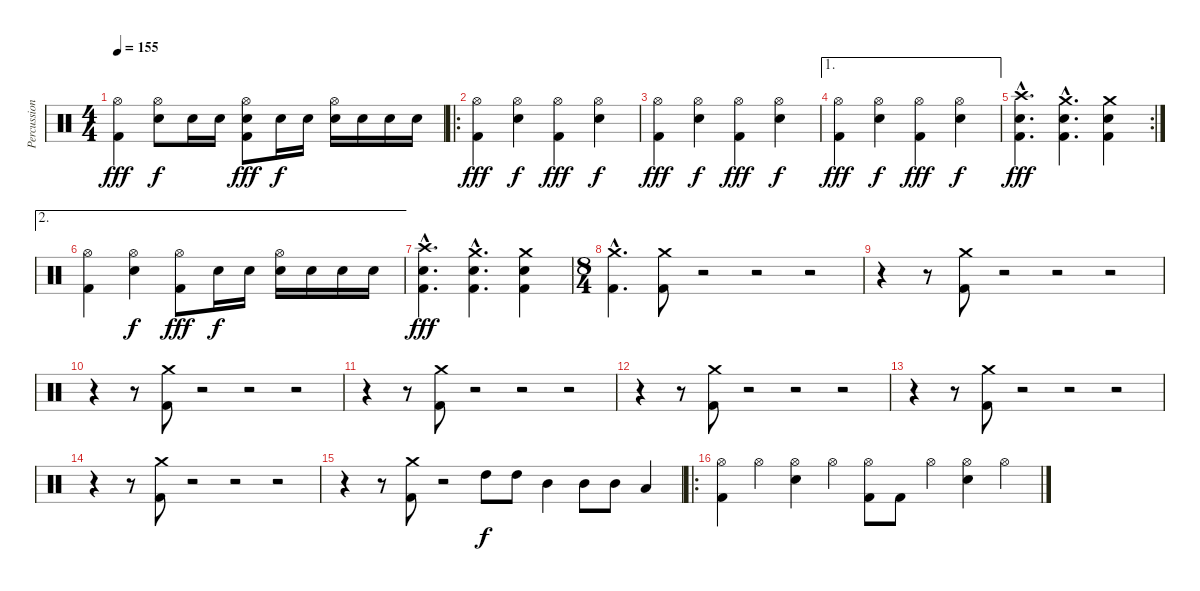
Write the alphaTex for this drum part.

\track ("Percussion" "Percussion") {instrument percussion}
\staff {score}
\articulation defaults
\ts (4 4)
\tempo 155
\clef neutral
\ks c
("Hi-Hat (open)" "Kick (hit) 2").4{dy fff} ("Hi-Hat (open)" "Snare (hit) 2").8{dy f} "Snare (hit) 2".16 "Snare (hit) 2".16 ("Hi-Hat (open)" "Snare (hit) 2" "Kick (hit) 2").8{dy fff} "Snare (hit) 2".16{dy f} "Snare (hit) 2".16 ("Hi-Hat (open)" "Snare (hit) 2").16 "Snare (hit) 2".16 "Snare (hit) 2".16 "Snare (hit) 2".16 |
\ro
("Hi-Hat (open)" "Kick (hit) 2").4{dy fff} ("Hi-Hat (open)" "Snare (hit) 2").4{dy f} ("Hi-Hat (open)" "Kick (hit) 2").4{dy fff} ("Hi-Hat (open)" "Snare (hit) 2").4{dy f} |
("Hi-Hat (open)" "Kick (hit) 2").4{dy fff} ("Hi-Hat (open)" "Snare (hit) 2").4{dy f} ("Hi-Hat (open)" "Kick (hit) 2").4{dy fff} ("Hi-Hat (open)" "Snare (hit) 2").4{dy f} |
\ae 1
("Hi-Hat (open)" "Kick (hit) 2").4{dy fff} ("Hi-Hat (open)" "Snare (hit) 2").4{dy f} ("Hi-Hat (open)" "Kick (hit) 2").4{dy fff} ("Hi-Hat (open)" "Snare (hit) 2").4{dy f} |
\rc 2
("Crash high (hit)"{hac} "Snare (hit) 2"{hac} "Kick (hit) 2"{hac}).4{d dy fff} ("Crash medium (hit)"{hac} "Snare (hit) 2"{hac} "Kick (hit) 2"{hac}).4{d} ("Crash medium (hit)" "Snare (hit) 2" "Kick (hit) 2").4 |
\ae 2
("Hi-Hat (open)" "Kick (hit) 2").4 ("Hi-Hat (open)" "Snare (hit) 2").4{dy f} ("Hi-Hat (open)" "Kick (hit) 2").8{dy fff} "Snare (hit) 2".16{dy f} "Snare (hit) 2".16 ("Hi-Hat (open)" "Snare (hit) 2").16 "Snare (hit) 2".16 "Snare (hit) 2".16 "Snare (hit) 2".16 |
("Crash high (hit)"{hac} "Snare (hit) 2"{hac} "Kick (hit) 2"{hac}).4{d dy fff} ("Crash medium (hit)"{hac} "Snare (hit) 2"{hac} "Kick (hit) 2"{hac}).4{d} ("Crash medium (hit)" "Snare (hit) 2" "Kick (hit) 2").4 |
\ts (8 4)
("Crash medium (hit)"{hac} "Kick (hit) 2"{hac}).4{d} ("Crash medium (hit)" "Kick (hit) 2").8 r.2 r.2 r.2 |
r.4 r.8 ("Crash medium (hit)" "Kick (hit) 2").8 r.2 r.2 r.2 |
r.4 r.8 ("Crash medium (hit)" "Kick (hit) 2").8 r.2 r.2 r.2 |
r.4 r.8 ("Crash medium (hit)" "Kick (hit) 2").8 r.2 r.2 r.2 |
r.4 r.8 ("Crash medium (hit)" "Kick (hit) 2").8 r.2 r.2 r.2 |
r.4 r.8 ("Crash medium (hit)" "Kick (hit) 2").8 r.2 r.2 r.2 |
r.4 r.8 ("Crash medium (hit)" "Kick (hit) 2").8 r.2 r.2 r.2 |
r.4 r.8 ("Crash medium (hit)" "Kick (hit) 2").8 r.2 "High Tom (hit)".8{dy f} "High Tom (hit)".8 "Mid Tom (hit)".4 "Mid Tom (hit)".8 "Mid Tom (hit)".8 "Low Tom (hit)".4 |
\ro
("Hi-Hat (open)" "Kick (hit) 2").4 "Hi-Hat (open)".4 ("Hi-Hat (open)" "Snare (hit) 2").4 "Hi-Hat (open)".4 ("Hi-Hat (open)" "Kick (hit) 2").8 "Kick (hit) 2".8 "Hi-Hat (open)".4 ("Hi-Hat (open)" "Snare (hit) 2").4 "Hi-Hat (open)".4
